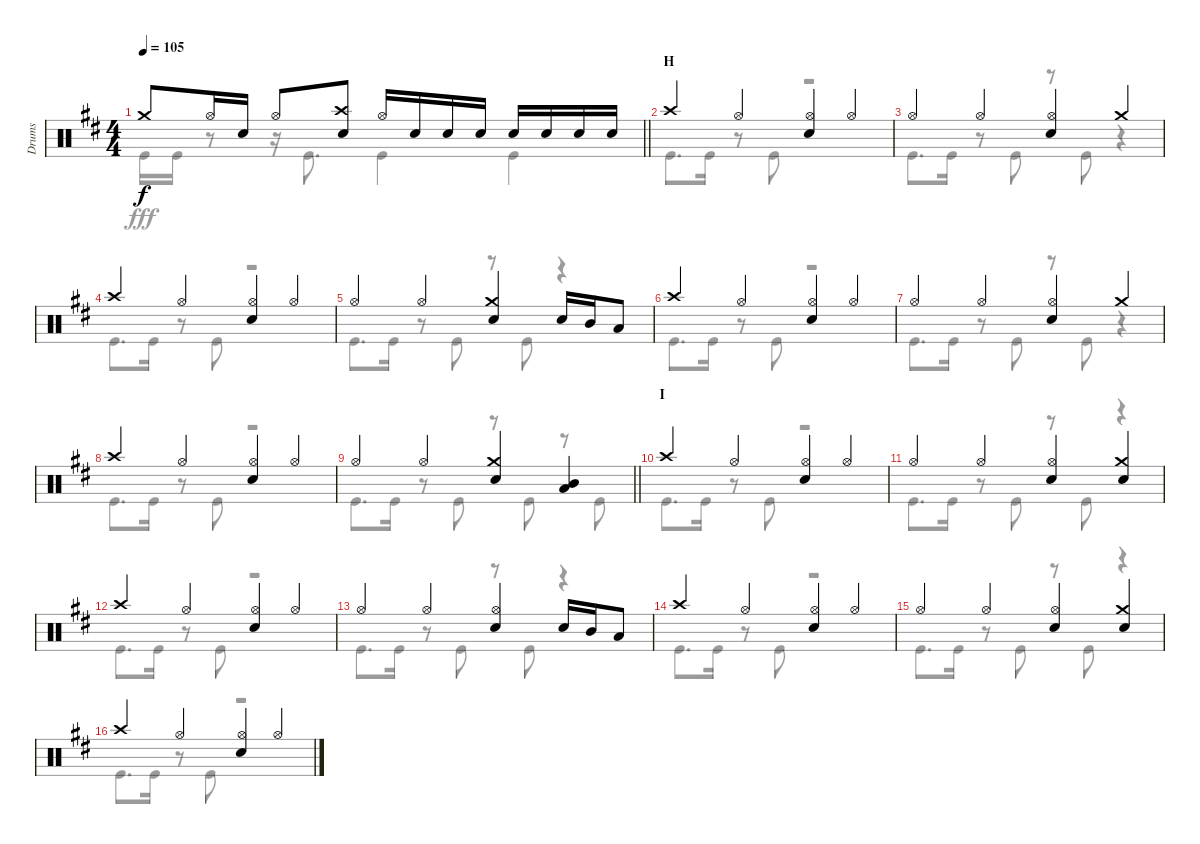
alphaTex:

\track ("Drums" "Drums") {instrument percussion}
\staff {score}
\articulation defaults
\voice
\ts (4 4)
\tempo 105
\clef neutral
\barLineRight lightlight
\ks d "Crash medium (hit)".8{dy f} "Hi-Hat (open)".16 "Snare (hit) 2".16 "Hi-Hat (open)".8
("Crash high (hit)" "Snare (hit) 2").8 "Hi-Hat (open)".16 "Snare (hit) 2".16 "Snare (hit) 2".16 "Snare (hit) 2".16 "Snare (hit) 2".16 "Snare (hit) 2".16 "Snare (hit) 2".16 "Snare (hit) 2".16 |
\section ("" "H")
"Crash high (hit)".4 "Hi-Hat (open)".4 ("Hi-Hat (open)" "Snare (hit) 2").4 "Hi-Hat (open)".4 |
"Hi-Hat (open)".4 "Hi-Hat (open)".4 ("Hi-Hat (open)" "Snare (hit) 2").4 "Crash medium (hit)".4 |
"Crash high (hit)".4 "Hi-Hat (open)".4 ("Hi-Hat (open)" "Snare (hit) 2").4 "Hi-Hat (open)".4 |
"Hi-Hat (open)".4 "Hi-Hat (open)".4 ("Crash medium (hit)" "Snare (hit) 2").4 "Snare (hit) 2".16 "Mid Tom (hit)".16 "Low Tom (hit)".8 |
"Crash high (hit)".4 "Hi-Hat (open)".4 ("Hi-Hat (open)" "Snare (hit) 2").4 "Hi-Hat (open)".4 |
"Hi-Hat (open)".4 "Hi-Hat (open)".4 ("Hi-Hat (open)" "Snare (hit) 2").4 "Crash medium (hit)".4 |
"Crash high (hit)".4 "Hi-Hat (open)".4 ("Hi-Hat (open)" "Snare (hit) 2").4 "Hi-Hat (open)".4 |
\barLineRight lightlight "Hi-Hat (open)".4 "Hi-Hat (open)".4
("Crash medium (hit)" "Snare (hit) 2").4 ("Mid Tom (hit)" "Low Tom (hit)").4 |
\section ("" "I")
"Crash high (hit)".4 "Hi-Hat (open)".4 ("Hi-Hat (open)" "Snare (hit) 2").4 "Hi-Hat (open)".4 |
"Hi-Hat (open)".4 "Hi-Hat (open)".4 ("Hi-Hat (open)" "Snare (hit) 2").4 ("Crash medium (hit)" "Snare (hit) 2").4 |
"Crash high (hit)".4 "Hi-Hat (open)".4 ("Hi-Hat (open)" "Snare (hit) 2").4 "Hi-Hat (open)".4 |
"Hi-Hat (open)".4 "Hi-Hat (open)".4 ("Hi-Hat (open)" "Snare (hit) 2").4 "Snare (hit) 2".16 "Mid Tom (hit)".16 "Low Tom (hit)".8 |
"Crash high (hit)".4 "Hi-Hat (open)".4 ("Hi-Hat (open)" "Snare (hit) 2").4 "Hi-Hat (open)".4 |
"Hi-Hat (open)".4 "Hi-Hat (open)".4 ("Hi-Hat (open)" "Snare (hit) 2").4 ("Crash medium (hit)" "Snare (hit) 2").4 |
"Crash high (hit)".4 "Hi-Hat (open)".4 ("Hi-Hat (open)" "Snare (hit) 2").4 "Hi-Hat (open)".4
\voice
\clef neutral
\ottava regular
\simile none
\barLineRight lightlight
\ks d "Kick (hit)".16{dy fff} "Kick (hit)".16
r.8 r.16 "Kick (hit)".8{d} "Kick (hit)".4 "Kick (hit)".4 |
"Kick (hit)".8{d} "Kick (hit)".16 r.8 "Kick (hit)".8 r.2 |
"Kick (hit)".8{d} "Kick (hit)".16 r.8 "Kick (hit)".8 r.8 "Kick (hit)".8 r.4 |
"Kick (hit)".8{d} "Kick (hit)".16 r.8 "Kick (hit)".8 r.2 |
"Kick (hit)".8{d} "Kick (hit)".16 r.8 "Kick (hit)".8 r.8 "Kick (hit)".8 r.4 |
"Kick (hit)".8{d} "Kick (hit)".16 r.8 "Kick (hit)".8 r.2 |
"Kick (hit)".8{d} "Kick (hit)".16 r.8 "Kick (hit)".8 r.8 "Kick (hit)".8 r.4 |
"Kick (hit)".8{d} "Kick (hit)".16 r.8 "Kick (hit)".8 r.2 |
\barLineRight lightlight "Kick (hit)".8{d} "Kick (hit)".16
r.8 "Kick (hit)".8 r.8 "Kick (hit)".8 r.8 "Kick (hit)".8 |
"Kick (hit)".8{d} "Kick (hit)".16 r.8 "Kick (hit)".8 r.2 |
"Kick (hit)".8{d} "Kick (hit)".16 r.8 "Kick (hit)".8 r.8 "Kick (hit)".8 r.4 |
"Kick (hit)".8{d} "Kick (hit)".16 r.8 "Kick (hit)".8 r.2 |
"Kick (hit)".8{d} "Kick (hit)".16 r.8 "Kick (hit)".8 r.8 "Kick (hit)".8 r.4 |
"Kick (hit)".8{d} "Kick (hit)".16 r.8 "Kick (hit)".8 r.2 |
"Kick (hit)".8{d} "Kick (hit)".16 r.8 "Kick (hit)".8 r.8 "Kick (hit)".8 r.4 |
"Kick (hit)".8{d} "Kick (hit)".16 r.8 "Kick (hit)".8 r.2
